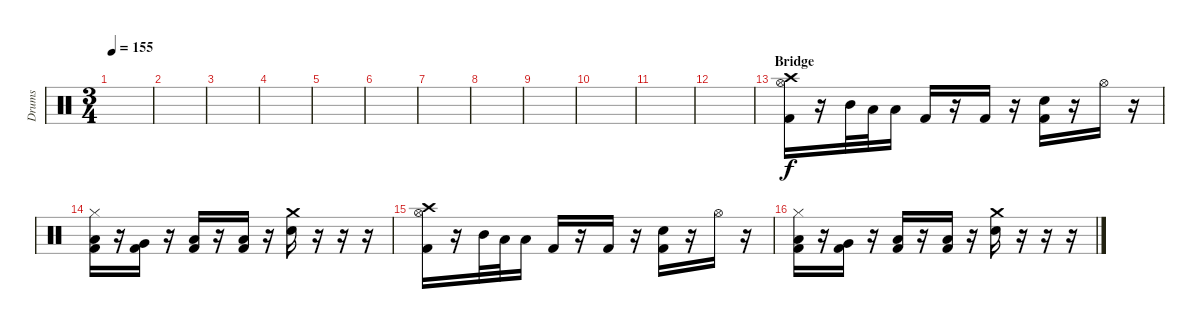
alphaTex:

\track ("Drums" "Drums") {instrument percussion}
\staff {score}
\articulation defaults
\ts (3 4)
\tempo 155
\clef neutral
\ks c
|
|
|
|
|
|
|
|
|
|
|
|
\section ("" "Bridge")
("Crash high (hit)" "Hi-Hat (open)" "Kick (hit) 2").16 r.16 "Mid Tom (hit)".32 "Low Tom (hit)".32 "Low Floor Tom (hit)".16 "Kick (hit) 2".16 r.16 "Kick (hit) 2".16 r.16 ("Snare (hit) 2" "Kick (hit) 2").16 r.16 "Hi-Hat (open)".16 r.16 |
("Hi-Hat (closed)" "Low Tom (hit)" "Kick (hit) 2").16 r.16 ("Very Low Tom (hit)" "Kick (hit) 2").16 r.16 ("Low Floor Tom (hit)" "Kick (hit) 2").16 r.16 ("Low Floor Tom (hit)" "Kick (hit) 2").16 r.16 ("Crash medium (hit)" "Snare (hit) 2").16 r.16 r.16 r.16 |
("Crash high (hit)" "Hi-Hat (open)" "Kick (hit) 2").16 r.16 "Mid Tom (hit)".32 "Low Tom (hit)".32 "Low Floor Tom (hit)".16 "Kick (hit) 2".16 r.16 "Kick (hit) 2".16 r.16 ("Snare (hit) 2" "Kick (hit) 2").16 r.16 "Hi-Hat (open)".16 r.16 |
("Hi-Hat (closed)" "Low Tom (hit)" "Kick (hit) 2").16 r.16 ("Very Low Tom (hit)" "Kick (hit) 2").16 r.16 ("Low Floor Tom (hit)" "Kick (hit) 2").16 r.16 ("Low Floor Tom (hit)" "Kick (hit) 2").16 r.16 ("Crash medium (hit)" "Snare (hit) 2").16 r.16 r.16 r.16
